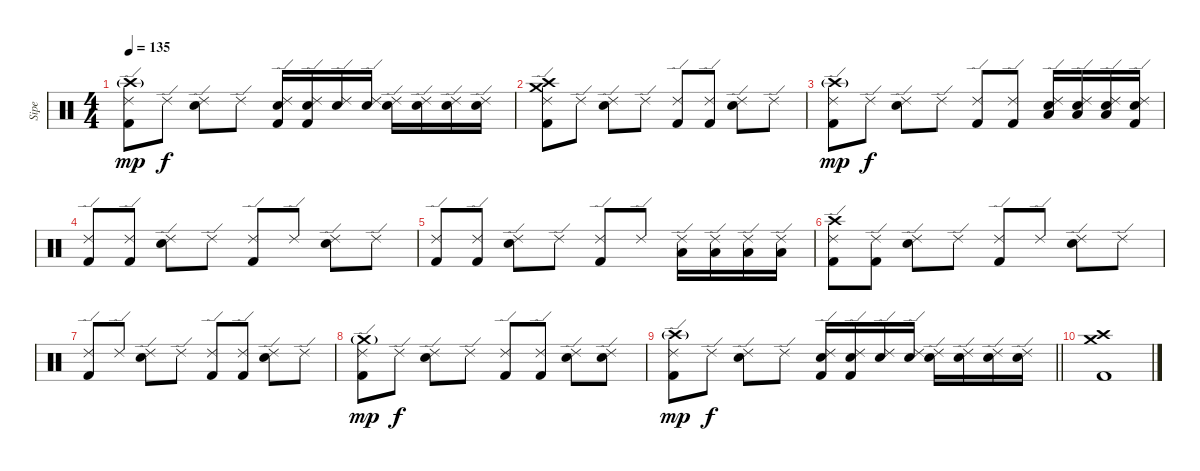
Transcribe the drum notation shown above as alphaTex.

\track ("Sipe" "Sipe") {instrument percussion}
\staff {score}
\articulation defaults
\ts (4 4)
\tempo 135
\clef neutral
\ks c
("Crash high (hit)"{g} "Kick (hit) 2" "Ride (edge) 2").8{dy mp} "Ride (edge) 2".8{dy f} ("Snare (hit) 2" "Ride (edge) 2").8 "Ride (edge) 2".8 ("Kick (hit) 2" "Ride (edge) 2" "Snare (hit) 2").16 ("Kick (hit) 2" "Ride (edge) 2" "Snare (hit) 2").16 ("Ride (edge) 2" "Snare (hit) 2").16 ("Ride (edge) 2" "Snare (hit) 2").16 ("Ride (edge) 2" "Snare (hit) 2").16 ("Ride (edge) 2" "Snare (hit) 2").16 ("Ride (edge) 2" "Snare (hit) 2").16 ("Ride (edge) 2" "Snare (hit) 2").16 |
("Kick (hit) 2" "Ride (edge) 2" "Crash high (hit)" "Crash medium (hit)").8 "Ride (edge) 2".8 ("Snare (hit) 2" "Ride (edge) 2").8 "Ride (edge) 2".8 ("Kick (hit) 2" "Ride (edge) 2").8 ("Kick (hit) 2" "Ride (edge) 2").8 ("Snare (hit) 2" "Ride (edge) 2").8 "Ride (edge) 2".8 |
("Kick (hit) 2" "Ride (edge) 2" "Crash high (hit)"{g}).8{dy mp} "Ride (edge) 2".8{dy f} ("Snare (hit) 2" "Ride (edge) 2").8 "Ride (edge) 2".8 ("Kick (hit) 2" "Ride (edge) 2").8 ("Kick (hit) 2" "Ride (edge) 2").8 ("Snare (hit) 2" "Ride (edge) 2" "Low Tom (hit)").16 ("Snare (hit) 2" "Ride (edge) 2" "Low Tom (hit)").16 ("Snare (hit) 2" "Ride (edge) 2" "Low Tom (hit)").16 ("Snare (hit) 2" "Ride (edge) 2" "Kick (hit) 2").16 |
("Kick (hit) 2" "Ride (edge) 2").8 ("Kick (hit) 2" "Ride (edge) 2").8 ("Snare (hit) 2" "Ride (edge) 2").8 "Ride (edge) 2".8 ("Kick (hit) 2" "Ride (edge) 2").8 "Ride (edge) 2".8 ("Snare (hit) 2" "Ride (edge) 2").8 "Ride (edge) 2".8 |
("Kick (hit) 2" "Ride (edge) 2").8 ("Kick (hit) 2" "Ride (edge) 2").8 ("Snare (hit) 2" "Ride (edge) 2").8 "Ride (edge) 2".8 ("Kick (hit) 2" "Ride (edge) 2").8 "Ride (edge) 2".8 ("Low Tom (hit)" "Ride (edge) 2").16 ("Low Tom (hit)" "Ride (edge) 2").16 ("Low Tom (hit)" "Ride (edge) 2").16 ("Low Tom (hit)" "Ride (edge) 2").16 |
("Crash high (hit)" "Kick (hit) 2" "Ride (edge) 2").8 ("Kick (hit) 2" "Ride (edge) 2").8 ("Snare (hit) 2" "Ride (edge) 2").8 "Ride (edge) 2".8 ("Kick (hit) 2" "Ride (edge) 2").8 "Ride (edge) 2".8 ("Snare (hit) 2" "Ride (edge) 2").8 "Ride (edge) 2".8 |
("Kick (hit) 2" "Ride (edge) 2").8 "Ride (edge) 2".8 ("Snare (hit) 2" "Ride (edge) 2").8 "Ride (edge) 2".8 ("Kick (hit) 2" "Ride (edge) 2").8 ("Kick (hit) 2" "Ride (edge) 2").8 ("Snare (hit) 2" "Ride (edge) 2").8 "Ride (edge) 2".8 |
("Crash medium (hit)"{g} "Kick (hit) 2" "Ride (edge) 2").8{dy mp} "Ride (edge) 2".8{dy f} ("Snare (hit) 2" "Ride (edge) 2").8 "Ride (edge) 2".8 ("Kick (hit) 2" "Ride (edge) 2").8 ("Kick (hit) 2" "Ride (edge) 2").8 ("Snare (hit) 2" "Ride (edge) 2").8 ("Snare (hit) 2" "Ride (edge) 2").8 |
\barLineRight lightlight
("Crash high (hit)"{g} "Kick (hit) 2" "Ride (edge) 2").8{dy mp} "Ride (edge) 2".8{dy f} ("Snare (hit) 2" "Ride (edge) 2").8 "Ride (edge) 2".8 ("Snare (hit) 2" "Kick (hit) 2" "Ride (edge) 2").16 ("Snare (hit) 2" "Kick (hit) 2" "Ride (edge) 2").16 ("Snare (hit) 2" "Ride (edge) 2").16 ("Snare (hit) 2" "Ride (edge) 2").16 ("Snare (hit) 2" "Ride (edge) 2").16 ("Snare (hit) 2" "Ride (edge) 2").16 ("Snare (hit) 2" "Ride (edge) 2").16 ("Snare (hit) 2" "Ride (edge) 2").16 |
("Crash medium (hit)" "Crash high (hit)" "Kick (hit) 2").1
